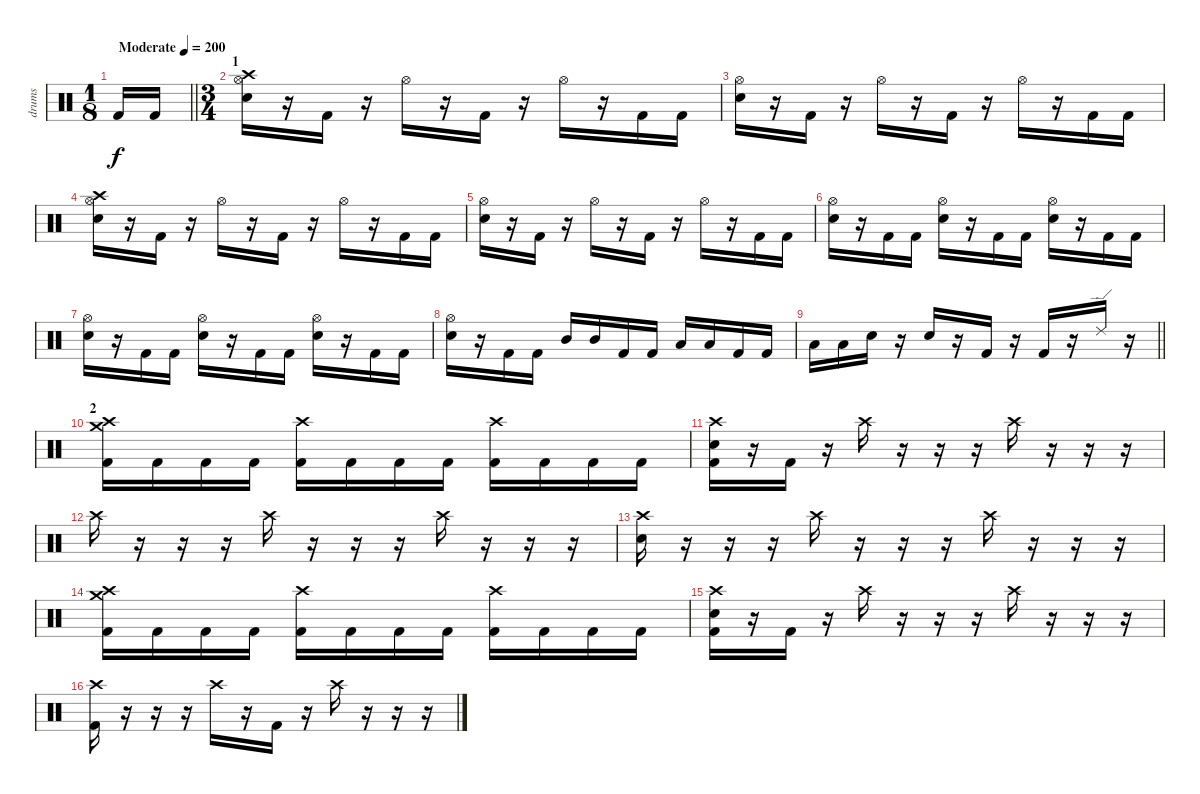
\track ("drums" "drums") {instrument percussion}
\staff {score}
\articulation defaults
\ts (1 8)
\tempo (200 "Moderate")
\clef neutral
\barLineRight lightlight
\ks c "Kick (hit) 2".16{dy f} "Kick (hit) 2".16
|
\ts (3 4)
\section ("" "1")
("Electric Snare (hit)" "Crash high (hit)" "Hi-Hat (open)").16 r.16 "Kick (hit) 2".16 r.16 "Hi-Hat (open)".16 r.16 "Kick (hit) 2".16 r.16 "Hi-Hat (open)".16 r.16 "Kick (hit) 2".16 "Kick (hit) 2".16 |
("Electric Snare (hit)" "Hi-Hat (open)").16 r.16 "Kick (hit) 2".16 r.16 "Hi-Hat (open)".16 r.16 "Kick (hit) 2".16 r.16 "Hi-Hat (open)".16 r.16 "Kick (hit) 2".16 "Kick (hit) 2".16 |
("Electric Snare (hit)" "Crash high (hit)" "Hi-Hat (open)").16 r.16 "Kick (hit) 2".16 r.16 "Hi-Hat (open)".16 r.16 "Kick (hit) 2".16 r.16 "Hi-Hat (open)".16 r.16 "Kick (hit) 2".16 "Kick (hit) 2".16 |
("Electric Snare (hit)" "Hi-Hat (open)").16 r.16 "Kick (hit) 2".16 r.16 "Hi-Hat (open)".16 r.16 "Kick (hit) 2".16 r.16 "Hi-Hat (open)".16 r.16 "Kick (hit) 2".16 "Kick (hit) 2".16 |
("Electric Snare (hit)" "Hi-Hat (open)").16 r.16 "Kick (hit) 2".16 "Kick (hit) 2".16 ("Electric Snare (hit)" "Hi-Hat (open)").16 r.16 "Kick (hit) 2".16 "Kick (hit) 2".16 ("Electric Snare (hit)" "Hi-Hat (open)").16 r.16 "Kick (hit) 2".16 "Kick (hit) 2".16 |
("Electric Snare (hit)" "Hi-Hat (open)").16 r.16 "Kick (hit) 2".16 "Kick (hit) 2".16 ("Electric Snare (hit)" "Hi-Hat (open)").16 r.16 "Kick (hit) 2".16 "Kick (hit) 2".16 ("Electric Snare (hit)" "Hi-Hat (open)").16 r.16 "Kick (hit) 2".16 "Kick (hit) 2".16 |
("Electric Snare (hit)" "Hi-Hat (open)").16 r.16 "Kick (hit) 2".16 "Kick (hit) 2".16 "Mid Tom (hit)".16 "Mid Tom (hit)".16 "Kick (hit) 2".16 "Kick (hit) 2".16 "Low Tom (hit)".16 "Low Tom (hit)".16 "Kick (hit) 2".16 "Kick (hit) 2".16 |
\barLineRight lightlight "Low Tom (hit)".16 "Low Tom (hit)".16 "Electric Snare (hit)".16
r.16 "Electric Snare (hit)".16 r.16 "Kick (hit) 2".16 r.16 "Kick (hit) 2".16 r.16 "Ride (edge) 2".16 r.16 |
\section ("" "2")
("Crash high (hit)" "Kick (hit) 2" "Crash medium (hit)").16 "Kick (hit) 2".16 "Kick (hit) 2".16 "Kick (hit) 2".16 ("Crash high (hit)" "Kick (hit) 2").16 "Kick (hit) 2".16 "Kick (hit) 2".16 "Kick (hit) 2".16 ("Kick (hit) 2" "Crash high (hit)").16 "Kick (hit) 2".16 "Kick (hit) 2".16 "Kick (hit) 2".16 |
("Crash high (hit)" "Electric Snare (hit)" "Kick (hit) 2").16 r.16 "Kick (hit) 2".16 r.16 "Crash high (hit)".16 r.16 r.16 r.16 "Crash high (hit)".16 r.16 r.16 r.16 |
"Crash high (hit)".16 r.16 r.16 r.16 "Crash high (hit)".16 r.16 r.16 r.16 "Crash high (hit)".16 r.16 r.16 r.16 |
("Crash high (hit)" "Electric Snare (hit)").16 r.16 r.16 r.16 "Crash high (hit)".16 r.16 r.16 r.16 "Crash high (hit)".16 r.16 r.16 r.16 |
("Crash high (hit)" "Kick (hit) 2" "Crash medium (hit)").16 "Kick (hit) 2".16 "Kick (hit) 2".16 "Kick (hit) 2".16 ("Crash high (hit)" "Kick (hit) 2").16 "Kick (hit) 2".16 "Kick (hit) 2".16 "Kick (hit) 2".16 ("Kick (hit) 2" "Crash high (hit)").16 "Kick (hit) 2".16 "Kick (hit) 2".16 "Kick (hit) 2".16 |
("Crash high (hit)" "Electric Snare (hit)" "Kick (hit) 2").16 r.16 "Kick (hit) 2".16 r.16 "Crash high (hit)".16 r.16 r.16 r.16 "Crash high (hit)".16 r.16 r.16 r.16 |
("Crash high (hit)" "Kick (hit) 2").16 r.16 r.16 r.16 "Crash high (hit)".16 r.16 "Kick (hit) 2".16 r.16 "Crash high (hit)".16 r.16 r.16 r.16
